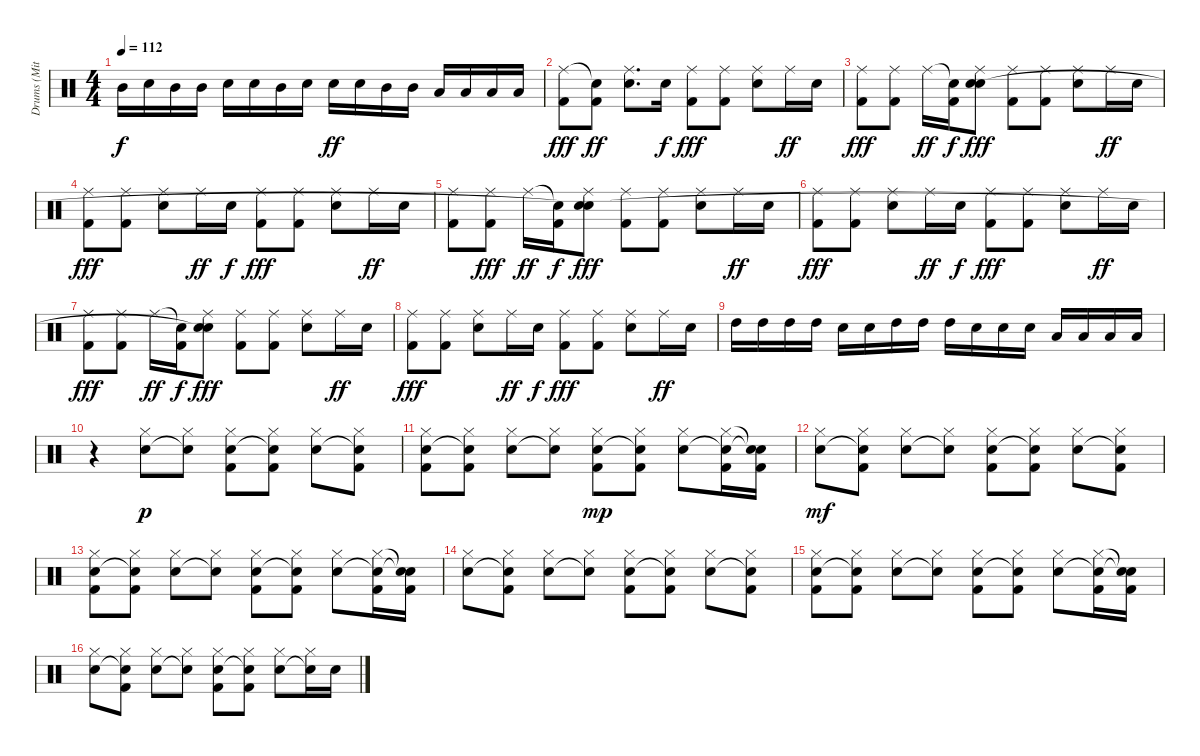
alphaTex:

\track ("Drums (Mitch Mitchell)" "Drums (Mit") {instrument percussion}
\staff {score}
\articulation defaults
\ts (4 4)
\tempo 112
\clef neutral
\ks c "Mid Tom (hit)".16{dy f} "Electric Snare (hit)".16 "Mid Tom (hit)".16 "Mid Tom (hit)".16 "Electric Snare (hit)".16 "Electric Snare (hit)".16 "Mid Tom (hit)".16 "Electric Snare (hit)".16 "Electric Snare (hit)".16{dy ff} "Electric Snare (hit)".16 "Mid Tom (hit)".16 "Mid Tom (hit)".16 "Low Tom (hit)".16 "Low Tom (hit)".16 "Low Tom (hit)".16 "Low Tom (hit)".16
|
("Ride (middle)" "Kick (hit) 2").8{dy fff} ("Snare (hit)"{t} "Kick (hit) 2").8{dy ff} ("Ride (middle)" "Electric Snare (hit)").8{d} "Electric Snare (hit)".16{dy f} ("Ride (middle)" "Kick (hit) 2").8{dy fff} ("Ride (middle)" "Kick (hit) 2").8 ("Ride (middle)" "Electric Snare (hit)").8 "Ride (middle)".16{dy ff} "Electric Snare (hit)".16 |
("Ride (middle)" "Kick (hit) 2").8{dy fff} ("Ride (middle)" "Kick (hit) 2").8 "Ride (middle)".16{dy ff} ("Snare (hit)"{t} "Kick (hit) 2").16{dy f} ("Ride (middle)" "Electric Snare (hit)" "Snare (hit)").8{dy fff} ("Ride (middle)" "Kick (hit) 2").8 ("Ride (middle)" "Kick (hit) 2").8 ("Ride (middle)" "Electric Snare (hit)").8 "Ride (middle)".16{dy ff} "Electric Snare (hit)".16 |
("Ride (middle)" "Kick (hit) 2").8{dy fff} ("Ride (middle)" "Kick (hit) 2").8 ("Ride (middle)" "Electric Snare (hit)").8 "Ride (middle)".16{dy ff} "Electric Snare (hit)".16{dy f} ("Ride (middle)" "Kick (hit) 2").8{dy fff} ("Ride (middle)" "Kick (hit) 2").8 ("Ride (middle)" "Electric Snare (hit)").8 "Ride (middle)".16{dy ff} "Electric Snare (hit)".16 |
("Ride (middle)" "Kick (hit) 2").8 ("Ride (middle)" "Kick (hit) 2").8{dy fff} "Ride (middle)".16{dy ff} ("Snare (hit)"{t} "Kick (hit) 2").16{dy f} ("Ride (middle)" "Electric Snare (hit)" "Snare (hit)"{t}).8{dy fff} ("Ride (middle)" "Kick (hit) 2").8 ("Ride (middle)" "Kick (hit) 2").8 ("Ride (middle)" "Electric Snare (hit)").8 "Ride (middle)".16{dy ff} "Electric Snare (hit)".16 |
("Ride (middle)" "Kick (hit) 2").8{dy fff} ("Ride (middle)" "Kick (hit) 2").8 ("Ride (middle)" "Electric Snare (hit)").8 "Ride (middle)".16{dy ff} "Electric Snare (hit)".16{dy f} ("Ride (middle)" "Kick (hit) 2").8{dy fff} ("Ride (middle)" "Kick (hit) 2").8 ("Ride (middle)" "Electric Snare (hit)").8 "Ride (middle)".16{dy ff} "Electric Snare (hit)".16 |
("Ride (middle)" "Kick (hit) 2").8{dy fff} ("Ride (middle)" "Kick (hit) 2").8 "Ride (middle)".16{dy ff} ("Snare (hit)"{t} "Kick (hit) 2").16{dy f} ("Ride (middle)" "Electric Snare (hit)" "Snare (hit)"{t}).8{dy fff} ("Ride (middle)" "Kick (hit) 2").8 ("Ride (middle)" "Kick (hit) 2").8 ("Ride (middle)" "Electric Snare (hit)").8 "Ride (middle)".16{dy ff} "Electric Snare (hit)".16 |
("Ride (middle)" "Kick (hit) 2").8{dy fff} ("Ride (middle)" "Kick (hit) 2").8 ("Ride (middle)" "Electric Snare (hit)").8 "Ride (middle)".16{dy ff} "Electric Snare (hit)".16{dy f} ("Ride (middle)" "Kick (hit) 2").8{dy fff} ("Ride (middle)" "Kick (hit) 2").8 ("Ride (middle)" "Electric Snare (hit)").8 "Ride (middle)".16{dy ff} "Electric Snare (hit)".16 |
"High Tom (hit)".16 "High Tom (hit)".16 "High Tom (hit)".16 "High Tom (hit)".16 "Electric Snare (hit)".16 "Electric Snare (hit)".16 "High Tom (hit)".16 "High Tom (hit)".16 "High Tom (hit)".16 "Electric Snare (hit)".16 "Electric Snare (hit)".16 "Electric Snare (hit)".16 "Low Tom (hit)".16 "Low Tom (hit)".16 "Low Tom (hit)".16 "Low Tom (hit)".16 |
r.4 ("Hi-Hat (closed)" "Electric Snare (hit)").8{dy p} ("Hi-Hat (closed)" "Snare (hit)"{t}).8 ("Hi-Hat (closed)" "Electric Snare (hit)" "Kick (hit) 2").8 ("Hi-Hat (closed)" "Snare (hit)"{t} "Kick (hit) 2").8 ("Hi-Hat (closed)" "Electric Snare (hit)").8 ("Hi-Hat (closed)" "Snare (hit)"{t} "Kick (hit) 2").8 |
("Hi-Hat (closed)" "Electric Snare (hit)" "Kick (hit) 2").8 ("Hi-Hat (closed)" "Snare (hit)"{t} "Kick (hit) 2").8 ("Hi-Hat (closed)" "Electric Snare (hit)").8 ("Hi-Hat (closed)" "Snare (hit)"{t}).8 ("Hi-Hat (closed)" "Electric Snare (hit)" "Kick (hit) 2").8{dy mp} ("Hi-Hat (closed)" "Snare (hit)"{t} "Kick (hit) 2").8 ("Hi-Hat (closed)" "Electric Snare (hit)").8 ("Hi-Hat (closed)" "Snare (hit)"{t} "Kick (hit) 2").16 ("Snare (hit)"{t} "Snare (hit)"{t} "Kick (hit) 2").16 |
("Hi-Hat (closed)" "Electric Snare (hit)").8{dy mf} ("Hi-Hat (closed)" "Snare (hit)"{t} "Kick (hit) 2").8 ("Hi-Hat (closed)" "Electric Snare (hit)").8 ("Hi-Hat (closed)" "Snare (hit)"{t}).8 ("Hi-Hat (closed)" "Electric Snare (hit)" "Kick (hit) 2").8 ("Hi-Hat (closed)" "Snare (hit)"{t} "Kick (hit) 2").8 ("Hi-Hat (closed)" "Electric Snare (hit)").8 ("Hi-Hat (closed)" "Snare (hit)"{t} "Kick (hit) 2").8 |
("Hi-Hat (closed)" "Electric Snare (hit)" "Kick (hit) 2").8 ("Hi-Hat (closed)" "Snare (hit)"{t} "Kick (hit) 2").8 ("Hi-Hat (closed)" "Electric Snare (hit)").8 ("Hi-Hat (closed)" "Snare (hit)"{t}).8 ("Hi-Hat (closed)" "Electric Snare (hit)" "Kick (hit) 2").8 ("Hi-Hat (closed)" "Snare (hit)"{t} "Kick (hit) 2").8 ("Hi-Hat (closed)" "Electric Snare (hit)").8 ("Hi-Hat (closed)" "Snare (hit)"{t} "Kick (hit) 2").16 ("Snare (hit)"{t} "Snare (hit)"{t} "Kick (hit) 2").16 |
("Hi-Hat (closed)" "Electric Snare (hit)").8 ("Hi-Hat (closed)" "Snare (hit)"{t} "Kick (hit) 2").8 ("Hi-Hat (closed)" "Electric Snare (hit)").8 ("Hi-Hat (closed)" "Snare (hit)"{t}).8 ("Hi-Hat (closed)" "Electric Snare (hit)" "Kick (hit) 2").8 ("Hi-Hat (closed)" "Snare (hit)"{t} "Kick (hit) 2").8 ("Hi-Hat (closed)" "Electric Snare (hit)").8 ("Hi-Hat (closed)" "Snare (hit)"{t} "Kick (hit) 2").8 |
("Hi-Hat (closed)" "Electric Snare (hit)" "Kick (hit) 2").8 ("Hi-Hat (closed)" "Snare (hit)"{t} "Kick (hit) 2").8 ("Hi-Hat (closed)" "Electric Snare (hit)").8 ("Hi-Hat (closed)" "Snare (hit)"{t}).8 ("Hi-Hat (closed)" "Electric Snare (hit)" "Kick (hit) 2").8 ("Hi-Hat (closed)" "Snare (hit)"{t} "Kick (hit) 2").8 ("Hi-Hat (closed)" "Electric Snare (hit)").8 ("Hi-Hat (closed)" "Snare (hit)"{t} "Kick (hit) 2").16 ("Snare (hit)"{t} "Snare (hit)"{t} "Kick (hit) 2").16 |
("Hi-Hat (closed)" "Electric Snare (hit)").8 ("Hi-Hat (closed)" "Snare (hit)"{t} "Kick (hit) 2").8 ("Hi-Hat (closed)" "Electric Snare (hit)").8 ("Hi-Hat (closed)" "Snare (hit)"{t}).8 ("Hi-Hat (closed)" "Electric Snare (hit)" "Kick (hit) 2").8 ("Hi-Hat (closed)" "Snare (hit)"{t} "Kick (hit) 2").8 ("Hi-Hat (closed)" "Electric Snare (hit)").8 ("Hi-Hat (closed)" "Snare (hit)"{t}).16 "Electric Snare (hit)".16
